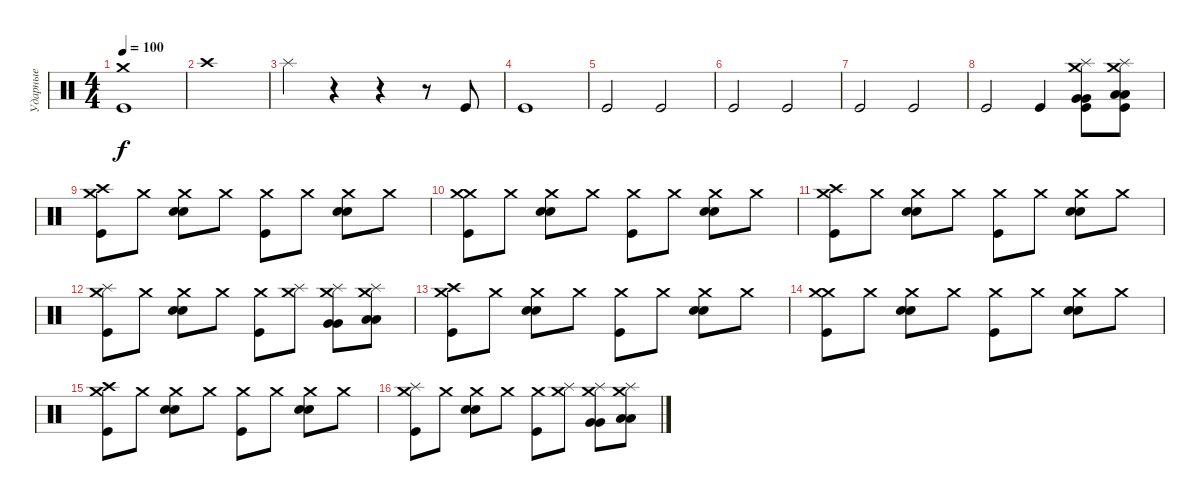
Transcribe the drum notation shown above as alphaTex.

\track ("Ударные" "Ударные") {instrument percussion}
\staff {score}
\articulation defaults
\ts (4 4)
\tempo 100
\clef neutral
\ks c
("Crash medium (hit)" "Kick (hit)").1{dy f} |
"Crash high (hit)".1 |
"Splash (hit)".4 r.4 r.4 r.8 "Kick (hit)".8 |
"Kick (hit)".1 |
"Kick (hit)".2 "Kick (hit)".2 |
"Kick (hit)".2 "Kick (hit)".2 |
"Kick (hit)".2 "Kick (hit)".2 |
"Kick (hit)".2 "Kick (hit)".4 ("Crash medium (hit)" "Splash (hit)" "Very Low Tom (hit)" "Very Low Tom (hit)" "Kick (hit)").8 ("Crash medium (hit)" "Splash (hit)" "Low Floor Tom (hit)" "Low Floor Tom (hit)" "Kick (hit)").8 |
("Crash medium (hit)" "Crash high (hit)" "Kick (hit)").8 "Crash medium (hit)".8 ("Crash medium (hit)" "Snare (hit) 2" "Snare (hit) 2").8 "Crash medium (hit)".8 ("Crash medium (hit)" "Kick (hit)").8 "Crash medium (hit)".8 ("Crash medium (hit)" "Snare (hit) 2" "Snare (hit) 2").8 "Crash medium (hit)".8 |
("Crash medium (hit)" "Crash medium (hit)" "Kick (hit)").8 "Crash medium (hit)".8 ("Crash medium (hit)" "Snare (hit) 2" "Snare (hit) 2").8 "Crash medium (hit)".8 ("Crash medium (hit)" "Kick (hit)").8 "Crash medium (hit)".8 ("Crash medium (hit)" "Snare (hit) 2" "Snare (hit) 2").8 "Crash medium (hit)".8 |
("Crash medium (hit)" "Crash high (hit)" "Kick (hit)").8 "Crash medium (hit)".8 ("Crash medium (hit)" "Snare (hit) 2" "Snare (hit) 2").8 "Crash medium (hit)".8 ("Crash medium (hit)" "Kick (hit)").8 "Crash medium (hit)".8 ("Crash medium (hit)" "Snare (hit) 2" "Snare (hit) 2").8 "Crash medium (hit)".8 |
("Crash medium (hit)" "Splash (hit)" "Kick (hit)").8 "Crash medium (hit)".8 ("Crash medium (hit)" "Snare (hit) 2" "Snare (hit) 2").8 "Crash medium (hit)".8 ("Crash medium (hit)" "Kick (hit)").8 ("Crash medium (hit)" "Splash (hit)").8 ("Crash medium (hit)" "Splash (hit)" "Very Low Tom (hit)" "Very Low Tom (hit)").8 ("Crash medium (hit)" "Splash (hit)" "Low Floor Tom (hit)" "Low Floor Tom (hit)").8 |
("Crash medium (hit)" "Crash high (hit)" "Kick (hit)").8 "Crash medium (hit)".8 ("Crash medium (hit)" "Snare (hit) 2" "Snare (hit) 2").8 "Crash medium (hit)".8 ("Crash medium (hit)" "Kick (hit)").8 "Crash medium (hit)".8 ("Crash medium (hit)" "Snare (hit) 2" "Snare (hit) 2").8 "Crash medium (hit)".8 |
("Crash medium (hit)" "Crash medium (hit)" "Kick (hit)").8 "Crash medium (hit)".8 ("Crash medium (hit)" "Snare (hit) 2" "Snare (hit) 2").8 "Crash medium (hit)".8 ("Crash medium (hit)" "Kick (hit)").8 "Crash medium (hit)".8 ("Crash medium (hit)" "Snare (hit) 2" "Snare (hit) 2").8 "Crash medium (hit)".8 |
("Crash medium (hit)" "Crash high (hit)" "Kick (hit)").8 "Crash medium (hit)".8 ("Crash medium (hit)" "Snare (hit) 2" "Snare (hit) 2").8 "Crash medium (hit)".8 ("Crash medium (hit)" "Kick (hit)").8 "Crash medium (hit)".8 ("Crash medium (hit)" "Snare (hit) 2" "Snare (hit) 2").8 "Crash medium (hit)".8 |
("Crash medium (hit)" "Splash (hit)" "Kick (hit)").8 "Crash medium (hit)".8 ("Crash medium (hit)" "Snare (hit) 2" "Snare (hit) 2").8 "Crash medium (hit)".8 ("Crash medium (hit)" "Kick (hit)").8 ("Crash medium (hit)" "Splash (hit)").8 ("Crash medium (hit)" "Splash (hit)" "Very Low Tom (hit)" "Very Low Tom (hit)").8 ("Crash medium (hit)" "Splash (hit)" "Low Floor Tom (hit)" "Low Floor Tom (hit)").8
